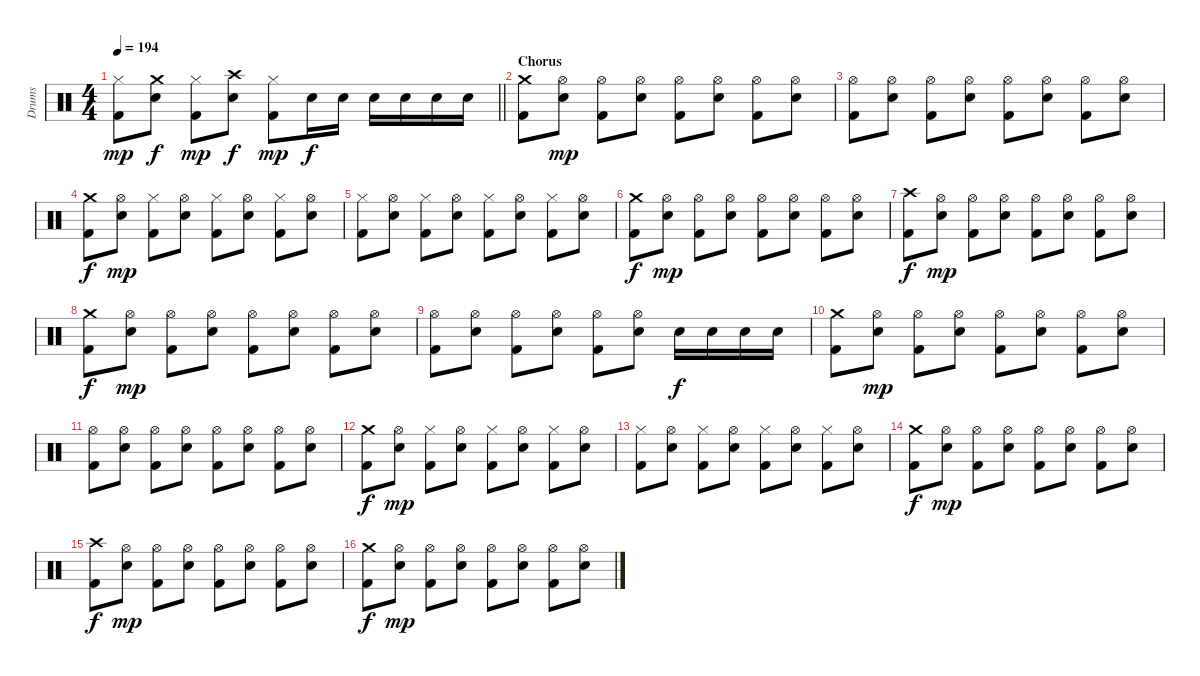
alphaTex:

\track ("Drums" "Drums") {instrument percussion}
\staff {score}
\articulation defaults
\ts (4 4)
\tempo 194
\clef neutral
\barLineRight lightlight
\ks c
("Hi-Hat (closed)" "Kick (hit) 2").8{dy mp} ("Crash medium (hit)" "Snare (hit) 2").8{dy f} ("Hi-Hat (closed)" "Kick (hit) 2").8{dy mp} ("Crash high (hit)" "Snare (hit) 2").8{dy f} ("Hi-Hat (closed)" "Kick (hit) 2").8{dy mp} "Snare (hit) 2".16{dy f} "Snare (hit) 2".16 "Snare (hit) 2".16 "Snare (hit) 2".16 "Snare (hit) 2".16 "Snare (hit) 2".16 |
\section ("" "Chorus")
("Crash medium (hit)" "Kick (hit) 2").8 ("Hi-Hat (open)" "Snare (hit) 2").8{dy mp} ("Hi-Hat (open)" "Kick (hit) 2").8 ("Hi-Hat (open)" "Snare (hit) 2").8 ("Hi-Hat (open)" "Kick (hit) 2").8 ("Hi-Hat (open)" "Snare (hit) 2").8 ("Hi-Hat (open)" "Kick (hit) 2").8 ("Hi-Hat (open)" "Snare (hit) 2").8 |
("Hi-Hat (open)" "Kick (hit) 2").8 ("Hi-Hat (open)" "Snare (hit) 2").8 ("Hi-Hat (open)" "Kick (hit) 2").8 ("Hi-Hat (open)" "Snare (hit) 2").8 ("Hi-Hat (open)" "Kick (hit) 2").8 ("Hi-Hat (open)" "Snare (hit) 2").8 ("Hi-Hat (open)" "Kick (hit) 2").8 ("Hi-Hat (open)" "Snare (hit) 2").8 |
("Crash medium (hit)" "Kick (hit) 2").8{dy f} ("Hi-Hat (open)" "Snare (hit) 2").8{dy mp} ("Hi-Hat (closed)" "Kick (hit) 2").8 ("Hi-Hat (open)" "Snare (hit) 2").8 ("Hi-Hat (closed)" "Kick (hit) 2").8 ("Hi-Hat (open)" "Snare (hit) 2").8 ("Hi-Hat (closed)" "Kick (hit) 2").8 ("Hi-Hat (open)" "Snare (hit) 2").8 |
("Hi-Hat (closed)" "Kick (hit) 2").8 ("Hi-Hat (open)" "Snare (hit) 2").8 ("Hi-Hat (closed)" "Kick (hit) 2").8 ("Hi-Hat (open)" "Snare (hit) 2").8 ("Hi-Hat (closed)" "Kick (hit) 2").8 ("Hi-Hat (open)" "Snare (hit) 2").8 ("Hi-Hat (closed)" "Kick (hit) 2").8 ("Hi-Hat (open)" "Snare (hit) 2").8 |
("Crash medium (hit)" "Kick (hit) 2").8{dy f} ("Hi-Hat (open)" "Snare (hit) 2").8{dy mp} ("Hi-Hat (open)" "Kick (hit) 2").8 ("Hi-Hat (open)" "Snare (hit) 2").8 ("Hi-Hat (open)" "Kick (hit) 2").8 ("Hi-Hat (open)" "Snare (hit) 2").8 ("Hi-Hat (open)" "Kick (hit) 2").8 ("Hi-Hat (open)" "Snare (hit) 2").8 |
("Crash high (hit)" "Kick (hit) 2").8{dy f} ("Hi-Hat (open)" "Snare (hit) 2").8{dy mp} ("Hi-Hat (open)" "Kick (hit) 2").8 ("Hi-Hat (open)" "Snare (hit) 2").8 ("Hi-Hat (open)" "Kick (hit) 2").8 ("Hi-Hat (open)" "Snare (hit) 2").8 ("Hi-Hat (open)" "Kick (hit) 2").8 ("Hi-Hat (open)" "Snare (hit) 2").8 |
("Crash medium (hit)" "Kick (hit) 2").8{dy f} ("Hi-Hat (open)" "Snare (hit) 2").8{dy mp} ("Hi-Hat (open)" "Kick (hit) 2").8 ("Hi-Hat (open)" "Snare (hit) 2").8 ("Hi-Hat (open)" "Kick (hit) 2").8 ("Hi-Hat (open)" "Snare (hit) 2").8 ("Hi-Hat (open)" "Kick (hit) 2").8 ("Hi-Hat (open)" "Snare (hit) 2").8 |
("Hi-Hat (open)" "Kick (hit) 2").8 ("Hi-Hat (open)" "Snare (hit) 2").8 ("Hi-Hat (open)" "Kick (hit) 2").8 ("Hi-Hat (open)" "Snare (hit) 2").8 ("Hi-Hat (open)" "Kick (hit) 2").8 ("Hi-Hat (open)" "Snare (hit) 2").8 "Snare (hit) 2".16{dy f} "Snare (hit) 2".16 "Snare (hit) 2".16 "Snare (hit) 2".16 |
("Crash medium (hit)" "Kick (hit) 2").8 ("Hi-Hat (open)" "Snare (hit) 2").8{dy mp} ("Hi-Hat (open)" "Kick (hit) 2").8 ("Hi-Hat (open)" "Snare (hit) 2").8 ("Hi-Hat (open)" "Kick (hit) 2").8 ("Hi-Hat (open)" "Snare (hit) 2").8 ("Hi-Hat (open)" "Kick (hit) 2").8 ("Hi-Hat (open)" "Snare (hit) 2").8 |
("Hi-Hat (open)" "Kick (hit) 2").8 ("Hi-Hat (open)" "Snare (hit) 2").8 ("Hi-Hat (open)" "Kick (hit) 2").8 ("Hi-Hat (open)" "Snare (hit) 2").8 ("Hi-Hat (open)" "Kick (hit) 2").8 ("Hi-Hat (open)" "Snare (hit) 2").8 ("Hi-Hat (open)" "Kick (hit) 2").8 ("Hi-Hat (open)" "Snare (hit) 2").8 |
("Crash medium (hit)" "Kick (hit) 2").8{dy f} ("Hi-Hat (open)" "Snare (hit) 2").8{dy mp} ("Hi-Hat (closed)" "Kick (hit) 2").8 ("Hi-Hat (open)" "Snare (hit) 2").8 ("Hi-Hat (closed)" "Kick (hit) 2").8 ("Hi-Hat (open)" "Snare (hit) 2").8 ("Hi-Hat (closed)" "Kick (hit) 2").8 ("Hi-Hat (open)" "Snare (hit) 2").8 |
("Hi-Hat (closed)" "Kick (hit) 2").8 ("Hi-Hat (open)" "Snare (hit) 2").8 ("Hi-Hat (closed)" "Kick (hit) 2").8 ("Hi-Hat (open)" "Snare (hit) 2").8 ("Hi-Hat (closed)" "Kick (hit) 2").8 ("Hi-Hat (open)" "Snare (hit) 2").8 ("Hi-Hat (closed)" "Kick (hit) 2").8 ("Hi-Hat (open)" "Snare (hit) 2").8 |
("Crash medium (hit)" "Kick (hit) 2").8{dy f} ("Hi-Hat (open)" "Snare (hit) 2").8{dy mp} ("Hi-Hat (open)" "Kick (hit) 2").8 ("Hi-Hat (open)" "Snare (hit) 2").8 ("Hi-Hat (open)" "Kick (hit) 2").8 ("Hi-Hat (open)" "Snare (hit) 2").8 ("Hi-Hat (open)" "Kick (hit) 2").8 ("Hi-Hat (open)" "Snare (hit) 2").8 |
("Crash high (hit)" "Kick (hit) 2").8{dy f} ("Hi-Hat (open)" "Snare (hit) 2").8{dy mp} ("Hi-Hat (open)" "Kick (hit) 2").8 ("Hi-Hat (open)" "Snare (hit) 2").8 ("Hi-Hat (open)" "Kick (hit) 2").8 ("Hi-Hat (open)" "Snare (hit) 2").8 ("Hi-Hat (open)" "Kick (hit) 2").8 ("Hi-Hat (open)" "Snare (hit) 2").8 |
("Crash medium (hit)" "Kick (hit) 2").8{dy f} ("Hi-Hat (open)" "Snare (hit) 2").8{dy mp} ("Hi-Hat (open)" "Kick (hit) 2").8 ("Hi-Hat (open)" "Snare (hit) 2").8 ("Hi-Hat (open)" "Kick (hit) 2").8 ("Hi-Hat (open)" "Snare (hit) 2").8 ("Hi-Hat (open)" "Kick (hit) 2").8 ("Hi-Hat (open)" "Snare (hit) 2").8
